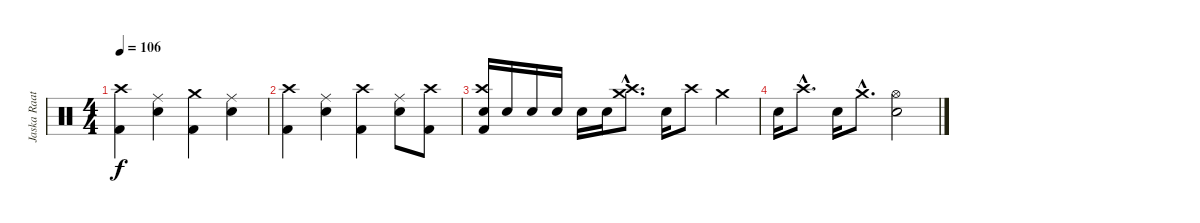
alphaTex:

\track ("Jaska Raatikainen" "Jaska Raat") {instrument percussion}
\staff {score}
\articulation defaults
\ts (4 4)
\tempo 106
\clef neutral
\ks c
("Kick (hit) 2" "Crash high (hit)").4{dy f} ("Ride (middle)" "Snare (hit) 2").4 ("Kick (hit) 2" "Crash medium (hit)").4 ("Ride (middle)" "Snare (hit) 2").4 |
("Kick (hit) 2" "Crash high (hit)").4 ("Ride (middle)" "Snare (hit) 2").4 ("Kick (hit) 2" "Crash high (hit)").4 ("Ride (middle)" "Snare (hit) 2").8 ("Kick (hit) 2" "Crash high (hit)").8 |
("Kick (hit) 2" "Crash high (hit)" "Snare (hit) 2").16 "Snare (hit) 2".16 "Snare (hit) 2".16 "Snare (hit) 2".16 "Snare (hit) 2".16 "Snare (hit) 2".16 ("Crash high (hit)"{hac} "Crash medium (hit)"{hac}).8{d} "Snare (hit) 2".16 "Crash high (hit)".8 "Crash medium (hit)".4 |
"Snare (hit) 2".16 "Crash high (hit)"{hac}.8{d} "Snare (hit) 2".16 "Crash medium (hit)"{hac}.8{d} ("Hi-Hat (open)" "Snare (hit) 2").2
